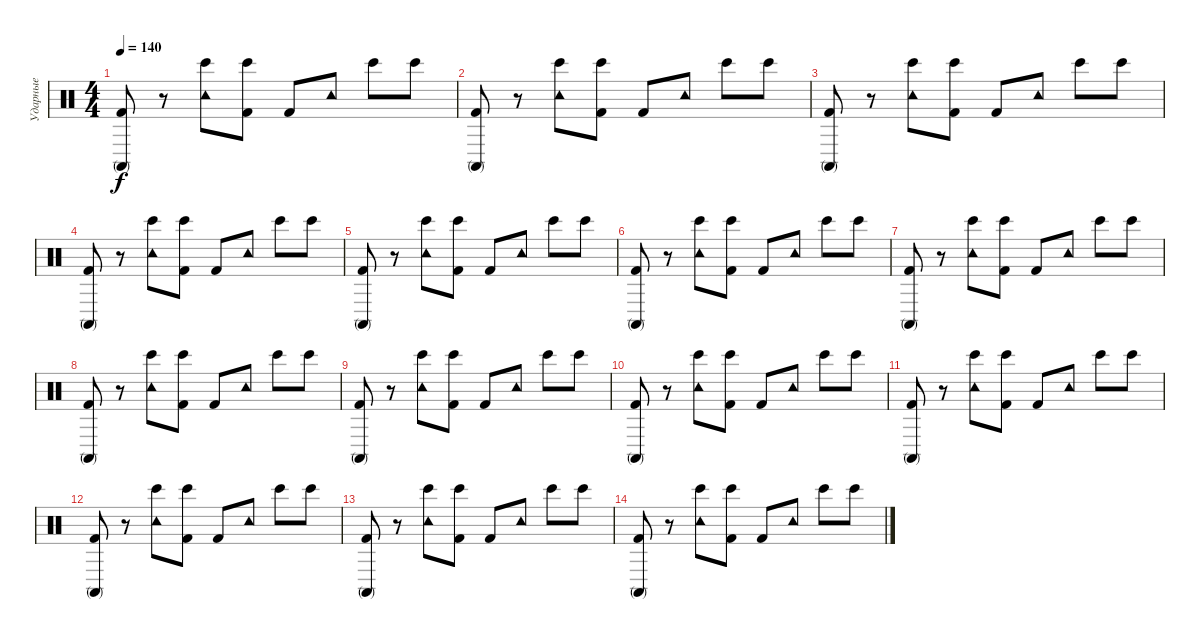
\track ("Ударные" "Ударные") {instrument percussion}
\staff {score}
\articulation defaults
\ts (4 4)
\tempo 140
\clef neutral
\ks c
("Kick (hit) 2" "Conga high (mute)").8{dy f} r.8 ("Tambourine (hit)" "Bongo High (hit)").8 ("Kick (hit) 2" "Bongo High (hit)").8 "Kick (hit) 2".8 "Tambourine (hit)".8 "Bongo High (hit)".8 "Bongo High (hit)".8 |
("Kick (hit) 2" "Conga high (mute)").8 r.8 ("Tambourine (hit)" "Bongo High (hit)").8 ("Kick (hit) 2" "Bongo High (hit)").8 "Kick (hit) 2".8 "Tambourine (hit)".8 "Bongo High (hit)".8 "Bongo High (hit)".8 |
("Kick (hit) 2" "Conga high (mute)").8 r.8 ("Tambourine (hit)" "Bongo High (hit)").8 ("Kick (hit) 2" "Bongo High (hit)").8 "Kick (hit) 2".8 "Tambourine (hit)".8 "Bongo High (hit)".8 "Bongo High (hit)".8 |
("Kick (hit) 2" "Conga high (mute)").8 r.8 ("Tambourine (hit)" "Bongo High (hit)").8 ("Kick (hit) 2" "Bongo High (hit)").8 "Kick (hit) 2".8 "Tambourine (hit)".8 "Bongo High (hit)".8 "Bongo High (hit)".8 |
("Kick (hit) 2" "Conga high (mute)").8 r.8 ("Tambourine (hit)" "Bongo High (hit)").8 ("Kick (hit) 2" "Bongo High (hit)").8 "Kick (hit) 2".8 "Tambourine (hit)".8 "Bongo High (hit)".8 "Bongo High (hit)".8 |
("Kick (hit) 2" "Conga high (mute)").8 r.8 ("Tambourine (hit)" "Bongo High (hit)").8 ("Kick (hit) 2" "Bongo High (hit)").8 "Kick (hit) 2".8 "Tambourine (hit)".8 "Bongo High (hit)".8 "Bongo High (hit)".8 |
("Kick (hit) 2" "Conga high (mute)").8 r.8 ("Tambourine (hit)" "Bongo High (hit)").8 ("Kick (hit) 2" "Bongo High (hit)").8 "Kick (hit) 2".8 "Tambourine (hit)".8 "Bongo High (hit)".8 "Bongo High (hit)".8 |
("Kick (hit) 2" "Conga high (mute)").8 r.8 ("Tambourine (hit)" "Bongo High (hit)").8 ("Kick (hit) 2" "Bongo High (hit)").8 "Kick (hit) 2".8 "Tambourine (hit)".8 "Bongo High (hit)".8 "Bongo High (hit)".8 |
("Kick (hit) 2" "Conga high (mute)").8 r.8 ("Tambourine (hit)" "Bongo High (hit)").8 ("Kick (hit) 2" "Bongo High (hit)").8 "Kick (hit) 2".8 "Tambourine (hit)".8 "Bongo High (hit)".8 "Bongo High (hit)".8 |
("Kick (hit) 2" "Conga high (mute)").8 r.8 ("Tambourine (hit)" "Bongo High (hit)").8 ("Kick (hit) 2" "Bongo High (hit)").8 "Kick (hit) 2".8 "Tambourine (hit)".8 "Bongo High (hit)".8 "Bongo High (hit)".8 |
("Kick (hit) 2" "Conga high (mute)").8 r.8 ("Tambourine (hit)" "Bongo High (hit)").8 ("Kick (hit) 2" "Bongo High (hit)").8 "Kick (hit) 2".8 "Tambourine (hit)".8 "Bongo High (hit)".8 "Bongo High (hit)".8 |
("Kick (hit) 2" "Conga high (mute)").8 r.8 ("Tambourine (hit)" "Bongo High (hit)").8 ("Kick (hit) 2" "Bongo High (hit)").8 "Kick (hit) 2".8 "Tambourine (hit)".8 "Bongo High (hit)".8 "Bongo High (hit)".8 |
("Kick (hit) 2" "Conga high (mute)").8 r.8 ("Tambourine (hit)" "Bongo High (hit)").8 ("Kick (hit) 2" "Bongo High (hit)").8 "Kick (hit) 2".8 "Tambourine (hit)".8 "Bongo High (hit)".8 "Bongo High (hit)".8 |
("Kick (hit) 2" "Conga high (mute)").8 r.8 ("Tambourine (hit)" "Bongo High (hit)").8 ("Kick (hit) 2" "Bongo High (hit)").8 "Kick (hit) 2".8 "Tambourine (hit)".8 "Bongo High (hit)".8 "Bongo High (hit)".8
